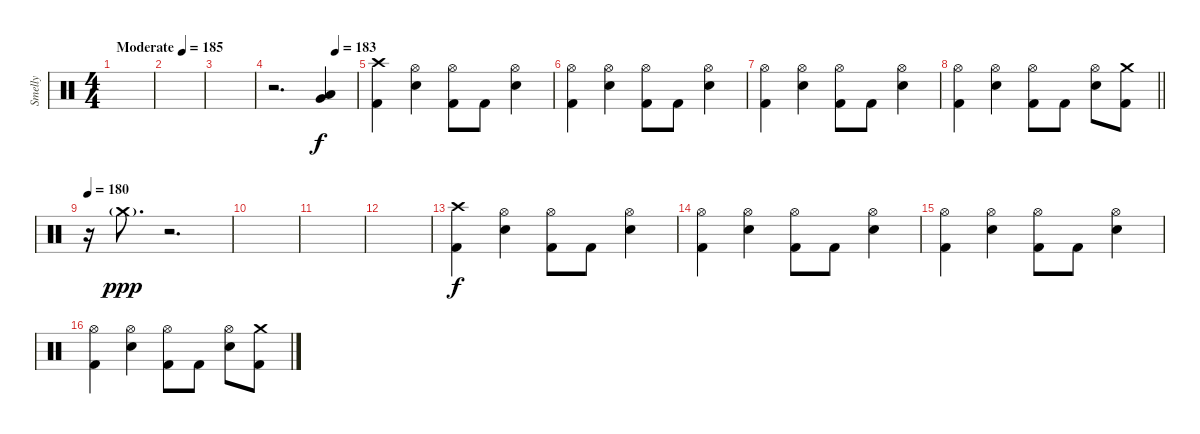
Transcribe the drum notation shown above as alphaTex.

\track ("Smelly" "Smelly") {instrument percussion}
\staff {score}
\articulation defaults
\ts (4 4)
\tempo (185 "Moderate")
\clef neutral
\ks c
|
|
|
\tempo (183 0.75)
r.2{d} ("Very Low Tom (hit)" "Low Floor Tom (hit)").4 |
("Crash high (hit)" "Kick (hit) 2").4 ("Hi-Hat (open)" "Electric Snare (hit)").4 ("Hi-Hat (open)" "Kick (hit) 2").8 "Kick (hit) 2".8 ("Hi-Hat (open)" "Electric Snare (hit)").4 |
("Hi-Hat (open)" "Kick (hit) 2").4 ("Hi-Hat (open)" "Electric Snare (hit)").4 ("Hi-Hat (open)" "Kick (hit) 2").8 "Kick (hit) 2".8 ("Hi-Hat (open)" "Electric Snare (hit)").4 |
("Hi-Hat (open)" "Kick (hit) 2").4 ("Hi-Hat (open)" "Electric Snare (hit)").4 ("Hi-Hat (open)" "Kick (hit) 2").8 "Kick (hit) 2".8 ("Hi-Hat (open)" "Electric Snare (hit)").4 |
\barLineRight lightlight
("Hi-Hat (open)" "Kick (hit) 2").4 ("Hi-Hat (open)" "Electric Snare (hit)").4 ("Hi-Hat (open)" "Kick (hit) 2").8 "Kick (hit) 2".8 ("Hi-Hat (open)" "Electric Snare (hit)").8 ("Crash medium (hit)" "Kick (hit) 2").8 |
\section ("" "")
\tempo 180
r.16 "Crash medium (hit)"{g}.8{d dy ppp} r.2{d} |
|
|
|
("Crash high (hit)" "Kick (hit) 2").4{dy f} ("Hi-Hat (open)" "Electric Snare (hit)").4 ("Hi-Hat (open)" "Kick (hit) 2").8 "Kick (hit) 2".8 ("Hi-Hat (open)" "Electric Snare (hit)").4 |
("Hi-Hat (open)" "Kick (hit) 2").4 ("Hi-Hat (open)" "Electric Snare (hit)").4 ("Hi-Hat (open)" "Kick (hit) 2").8 "Kick (hit) 2".8 ("Hi-Hat (open)" "Electric Snare (hit)").4 |
("Hi-Hat (open)" "Kick (hit) 2").4 ("Hi-Hat (open)" "Electric Snare (hit)").4 ("Hi-Hat (open)" "Kick (hit) 2").8 "Kick (hit) 2".8 ("Hi-Hat (open)" "Electric Snare (hit)").4 |
("Hi-Hat (open)" "Kick (hit) 2").4 ("Hi-Hat (open)" "Electric Snare (hit)").4 ("Hi-Hat (open)" "Kick (hit) 2").8 "Kick (hit) 2".8 ("Hi-Hat (open)" "Electric Snare (hit)").8 ("Crash medium (hit)" "Kick (hit) 2").8
